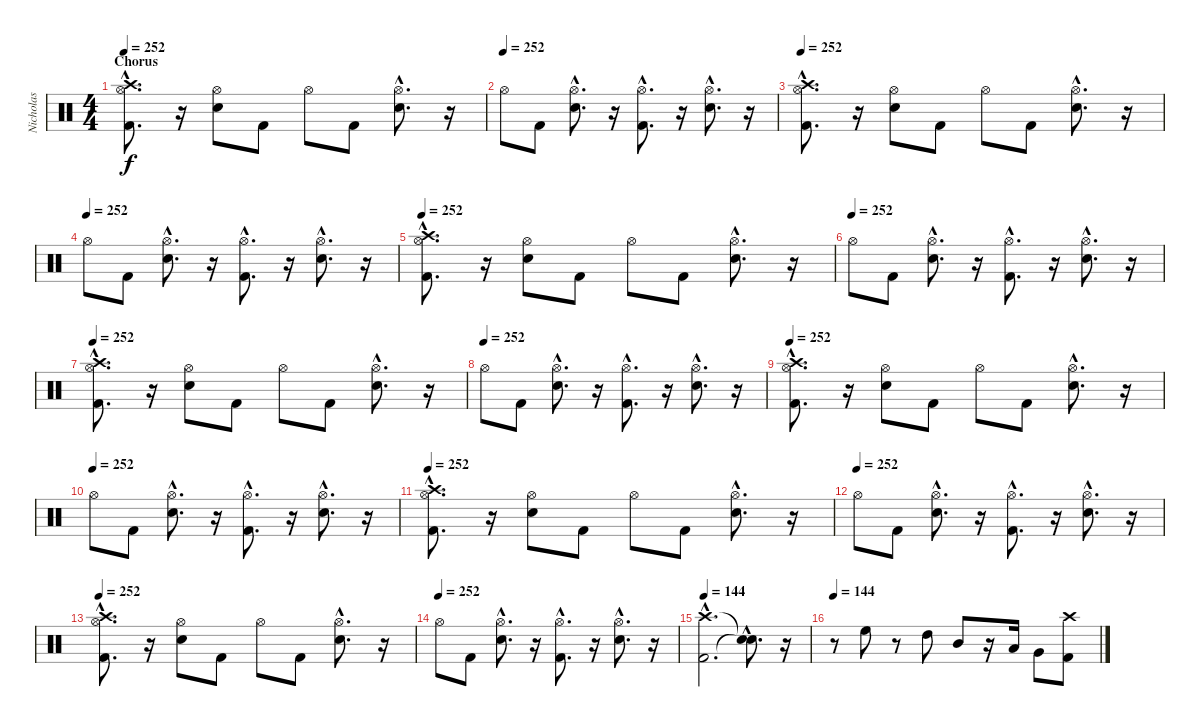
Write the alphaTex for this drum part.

\track ("Nicholas" "Nicholas") {instrument percussion}
\staff {score}
\articulation defaults
\ts (4 4)
\section ("" "Chorus")
\tempo 252
\clef neutral
\ks c
("Kick (hit) 2"{hac} "Hi-Hat (open)"{hac} "Crash high (hit)"{hac}).8{d dy f} r.16 ("Snare (hit) 2" "Hi-Hat (open)").8 "Kick (hit) 2".8 "Hi-Hat (open)".8 "Kick (hit) 2".8 ("Snare (hit) 2"{hac} "Hi-Hat (open)"{hac}).8{d} r.16 |
\tempo (252)
"Hi-Hat (open)".8 "Kick (hit) 2".8 ("Snare (hit) 2"{hac} "Hi-Hat (open)"{hac}).8{d} r.16 ("Kick (hit) 2"{hac} "Hi-Hat (open)"{hac}).8{d} r.16 ("Snare (hit) 2"{hac} "Hi-Hat (open)"{hac}).8{d} r.16 |
\tempo 252
("Kick (hit) 2"{hac} "Hi-Hat (open)"{hac} "Crash high (hit)"{hac}).8{d} r.16 ("Snare (hit) 2" "Hi-Hat (open)").8 "Kick (hit) 2".8 "Hi-Hat (open)".8 "Kick (hit) 2".8 ("Snare (hit) 2"{hac} "Hi-Hat (open)"{hac}).8{d} r.16 |
\tempo (252)
"Hi-Hat (open)".8 "Kick (hit) 2".8 ("Snare (hit) 2"{hac} "Hi-Hat (open)"{hac}).8{d} r.16 ("Kick (hit) 2"{hac} "Hi-Hat (open)"{hac}).8{d} r.16 ("Snare (hit) 2"{hac} "Hi-Hat (open)"{hac}).8{d} r.16 |
\tempo 252
("Kick (hit) 2"{hac} "Hi-Hat (open)"{hac} "Crash high (hit)"{hac}).8{d} r.16 ("Snare (hit) 2" "Hi-Hat (open)").8 "Kick (hit) 2".8 "Hi-Hat (open)".8 "Kick (hit) 2".8 ("Snare (hit) 2"{hac} "Hi-Hat (open)"{hac}).8{d} r.16 |
\tempo (252)
"Hi-Hat (open)".8 "Kick (hit) 2".8 ("Snare (hit) 2"{hac} "Hi-Hat (open)"{hac}).8{d} r.16 ("Kick (hit) 2"{hac} "Hi-Hat (open)"{hac}).8{d} r.16 ("Snare (hit) 2"{hac} "Hi-Hat (open)"{hac}).8{d} r.16 |
\tempo 252
("Kick (hit) 2"{hac} "Hi-Hat (open)"{hac} "Crash high (hit)"{hac}).8{d} r.16 ("Snare (hit) 2" "Hi-Hat (open)").8 "Kick (hit) 2".8 "Hi-Hat (open)".8 "Kick (hit) 2".8 ("Snare (hit) 2"{hac} "Hi-Hat (open)"{hac}).8{d} r.16 |
\tempo (252)
"Hi-Hat (open)".8 "Kick (hit) 2".8 ("Snare (hit) 2"{hac} "Hi-Hat (open)"{hac}).8{d} r.16 ("Kick (hit) 2"{hac} "Hi-Hat (open)"{hac}).8{d} r.16 ("Snare (hit) 2"{hac} "Hi-Hat (open)"{hac}).8{d} r.16 |
\tempo 252
("Kick (hit) 2"{hac} "Hi-Hat (open)"{hac} "Crash high (hit)"{hac}).8{d} r.16 ("Snare (hit) 2" "Hi-Hat (open)").8 "Kick (hit) 2".8 "Hi-Hat (open)".8 "Kick (hit) 2".8 ("Snare (hit) 2"{hac} "Hi-Hat (open)"{hac}).8{d} r.16 |
\tempo (252)
"Hi-Hat (open)".8 "Kick (hit) 2".8 ("Snare (hit) 2"{hac} "Hi-Hat (open)"{hac}).8{d} r.16 ("Kick (hit) 2"{hac} "Hi-Hat (open)"{hac}).8{d} r.16 ("Snare (hit) 2"{hac} "Hi-Hat (open)"{hac}).8{d} r.16 |
\tempo 252
("Kick (hit) 2"{hac} "Hi-Hat (open)"{hac} "Crash high (hit)"{hac}).8{d} r.16 ("Snare (hit) 2" "Hi-Hat (open)").8 "Kick (hit) 2".8 "Hi-Hat (open)".8 "Kick (hit) 2".8 ("Snare (hit) 2"{hac} "Hi-Hat (open)"{hac}).8{d} r.16 |
\tempo (252)
"Hi-Hat (open)".8 "Kick (hit) 2".8 ("Snare (hit) 2"{hac} "Hi-Hat (open)"{hac}).8{d} r.16 ("Kick (hit) 2"{hac} "Hi-Hat (open)"{hac}).8{d} r.16 ("Snare (hit) 2"{hac} "Hi-Hat (open)"{hac}).8{d} r.16 |
\tempo 252
("Kick (hit) 2"{hac} "Hi-Hat (open)"{hac} "Crash high (hit)"{hac}).8{d} r.16 ("Snare (hit) 2" "Hi-Hat (open)").8 "Kick (hit) 2".8 "Hi-Hat (open)".8 "Kick (hit) 2".8 ("Snare (hit) 2"{hac} "Hi-Hat (open)"{hac}).8{d} r.16 |
\tempo (252)
"Hi-Hat (open)".8 "Kick (hit) 2".8 ("Snare (hit) 2"{hac} "Hi-Hat (open)"{hac}).8{d} r.16 ("Kick (hit) 2"{hac} "Hi-Hat (open)"{hac}).8{d} r.16 ("Snare (hit) 2"{hac} "Hi-Hat (open)"{hac}).8{d} r.16 |
\tempo 144
("Kick (hit) 2"{hac} "Crash high (hit)"{hac}).2{d} ("Snare (hit)"{hac t} "Snare (hit)"{hac t}).8{d} r.16 |
\tempo 144
r.8 "High Floor Tom (hit)".8 r.8 "High Tom (hit)".8 "Mid Tom (hit)".8 r.16 "Low Tom (hit)".16 "Very Low Tom (hit)".8 ("Kick (hit) 2" "Crash high (hit)").8
